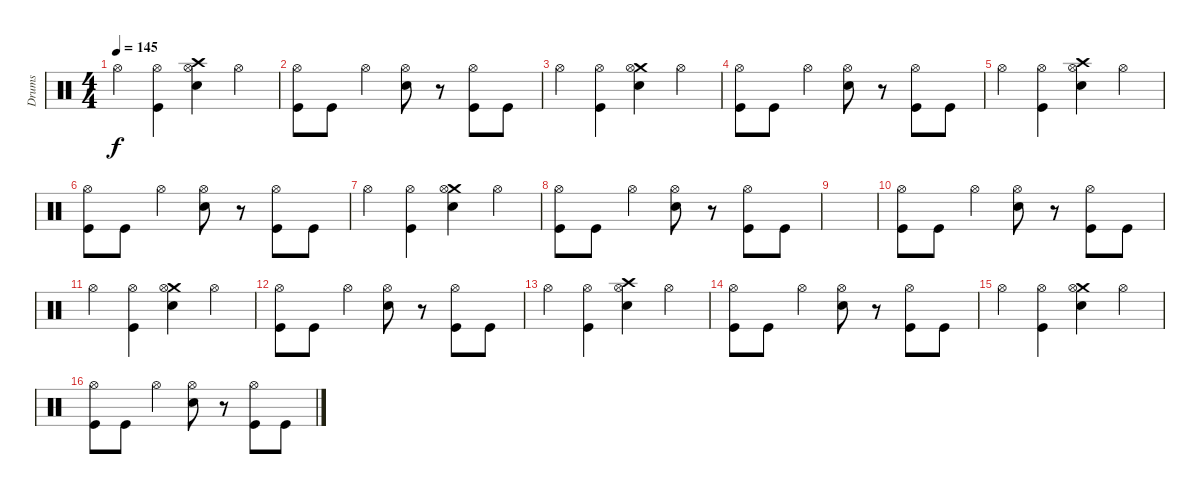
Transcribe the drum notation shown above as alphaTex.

\track ("Drums" "Drums") {instrument percussion}
\staff {score}
\articulation defaults
\ts (4 4)
\tempo 145
\clef neutral
\ks c "Hi-Hat (open)".4{dy f}
("Hi-Hat (open)" "Kick (hit)").4 ("Crash high (hit)" "Hi-Hat (open)" "Snare (hit) 2").4 "Hi-Hat (open)".4 |
("Hi-Hat (open)" "Kick (hit)").8 "Kick (hit)".8 "Hi-Hat (open)".4 ("Hi-Hat (open)" "Snare (hit) 2").8 r.8 ("Hi-Hat (open)" "Kick (hit)").8 "Kick (hit)".8 |
"Hi-Hat (open)".4 ("Hi-Hat (open)" "Kick (hit)").4 ("Crash medium (hit)" "Hi-Hat (open)" "Snare (hit) 2").4 "Hi-Hat (open)".4 |
("Hi-Hat (open)" "Kick (hit)").8 "Kick (hit)".8 "Hi-Hat (open)".4 ("Hi-Hat (open)" "Snare (hit) 2").8 r.8 ("Hi-Hat (open)" "Kick (hit)").8 "Kick (hit)".8 |
"Hi-Hat (open)".4 ("Hi-Hat (open)" "Kick (hit)").4 ("Crash high (hit)" "Hi-Hat (open)" "Snare (hit) 2").4 "Hi-Hat (open)".4 |
("Hi-Hat (open)" "Kick (hit)").8 "Kick (hit)".8 "Hi-Hat (open)".4 ("Hi-Hat (open)" "Snare (hit) 2").8 r.8 ("Hi-Hat (open)" "Kick (hit)").8 "Kick (hit)".8 |
"Hi-Hat (open)".4 ("Hi-Hat (open)" "Kick (hit)").4 ("Crash medium (hit)" "Hi-Hat (open)" "Snare (hit) 2").4 "Hi-Hat (open)".4 |
("Hi-Hat (open)" "Kick (hit)").8 "Kick (hit)".8 "Hi-Hat (open)".4 ("Hi-Hat (open)" "Snare (hit) 2").8 r.8 ("Hi-Hat (open)" "Kick (hit)").8 "Kick (hit)".8 |
|
("Hi-Hat (open)" "Kick (hit)").8 "Kick (hit)".8 "Hi-Hat (open)".4 ("Hi-Hat (open)" "Snare (hit) 2").8 r.8 ("Hi-Hat (open)" "Kick (hit)").8 "Kick (hit)".8 |
"Hi-Hat (open)".4 ("Hi-Hat (open)" "Kick (hit)").4 ("Crash medium (hit)" "Hi-Hat (open)" "Snare (hit) 2").4 "Hi-Hat (open)".4 |
("Hi-Hat (open)" "Kick (hit)").8 "Kick (hit)".8 "Hi-Hat (open)".4 ("Hi-Hat (open)" "Snare (hit) 2").8 r.8 ("Hi-Hat (open)" "Kick (hit)").8 "Kick (hit)".8 |
"Hi-Hat (open)".4 ("Hi-Hat (open)" "Kick (hit)").4 ("Crash high (hit)" "Hi-Hat (open)" "Snare (hit) 2").4 "Hi-Hat (open)".4 |
("Hi-Hat (open)" "Kick (hit)").8 "Kick (hit)".8 "Hi-Hat (open)".4 ("Hi-Hat (open)" "Snare (hit) 2").8 r.8 ("Hi-Hat (open)" "Kick (hit)").8 "Kick (hit)".8 |
"Hi-Hat (open)".4 ("Hi-Hat (open)" "Kick (hit)").4 ("Crash medium (hit)" "Hi-Hat (open)" "Snare (hit) 2").4 "Hi-Hat (open)".4 |
("Hi-Hat (open)" "Kick (hit)").8 "Kick (hit)".8 "Hi-Hat (open)".4 ("Hi-Hat (open)" "Snare (hit) 2").8 r.8 ("Hi-Hat (open)" "Kick (hit)").8 "Kick (hit)".8
